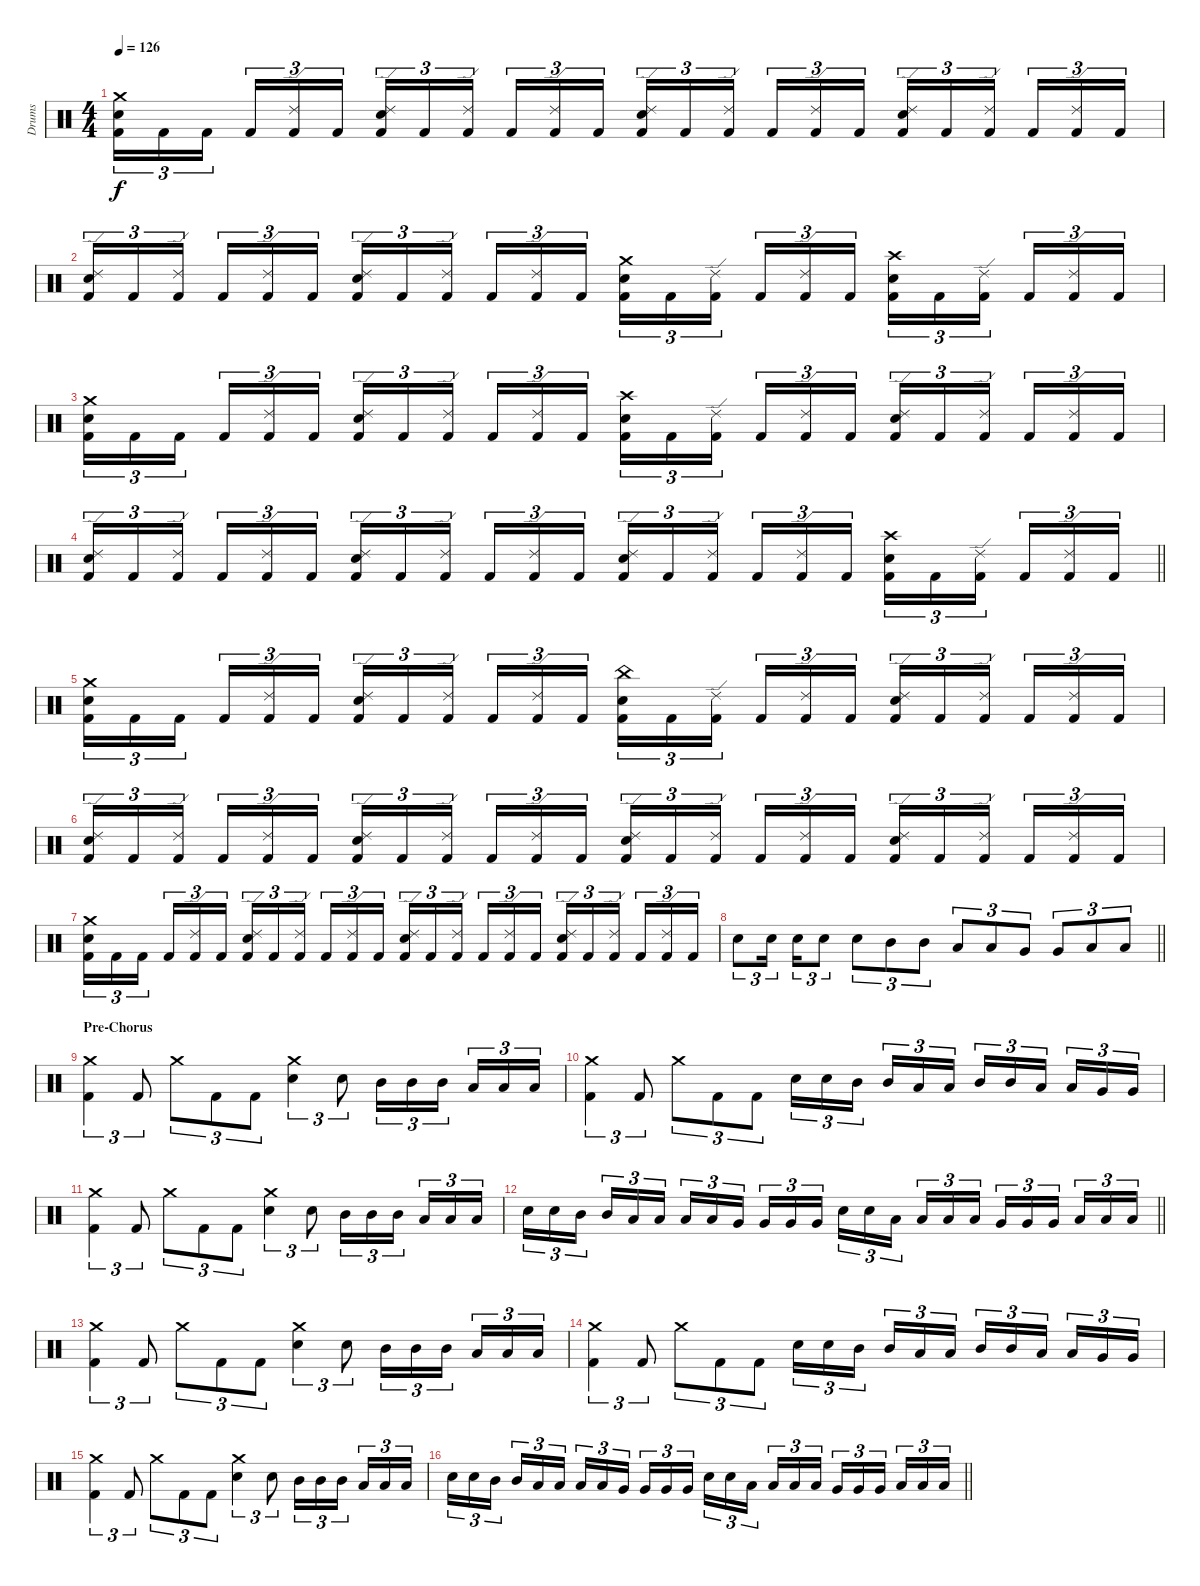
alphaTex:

\track ("Drums" "Drums") {instrument percussion}
\staff {score}
\articulation defaults
\ts (4 4)
\section ("" "")
\tempo 126
\clef neutral
\ks c
("Kick (hit) 2" "Snare (hit) 2" "Crash medium (hit)").16{tu (3 2) dy f} "Kick (hit) 2".16{tu (3 2)} "Kick (hit) 2".16{tu (3 2) beam splitsecondary} "Kick (hit) 2".16{tu (3 2)} ("Kick (hit) 2" "Ride (edge) 2").16{tu (3 2)} "Kick (hit) 2".16{tu (3 2)} ("Kick (hit) 2" "Snare (hit) 2" "Ride (edge) 2").16{tu (3 2)} "Kick (hit) 2".16{tu (3 2)} ("Kick (hit) 2" "Ride (edge) 2").16{tu (3 2) beam splitsecondary} "Kick (hit) 2".16{tu (3 2)} ("Kick (hit) 2" "Ride (edge) 2").16{tu (3 2)} "Kick (hit) 2".16{tu (3 2)} ("Kick (hit) 2" "Snare (hit) 2" "Ride (edge) 2").16{tu (3 2)} "Kick (hit) 2".16{tu (3 2)} ("Kick (hit) 2" "Ride (edge) 2").16{tu (3 2) beam splitsecondary} "Kick (hit) 2".16{tu (3 2)} ("Kick (hit) 2" "Ride (edge) 2").16{tu (3 2)} "Kick (hit) 2".16{tu (3 2)} ("Kick (hit) 2" "Snare (hit) 2" "Ride (edge) 2").16{tu (3 2)} "Kick (hit) 2".16{tu (3 2)} ("Kick (hit) 2" "Ride (edge) 2").16{tu (3 2) beam splitsecondary} "Kick (hit) 2".16{tu (3 2)} ("Kick (hit) 2" "Ride (edge) 2").16{tu (3 2)} "Kick (hit) 2".16{tu (3 2)} |
("Kick (hit) 2" "Snare (hit) 2" "Ride (edge) 2").16{tu (3 2)} "Kick (hit) 2".16{tu (3 2)} ("Kick (hit) 2" "Ride (edge) 2").16{tu (3 2) beam splitsecondary} "Kick (hit) 2".16{tu (3 2)} ("Kick (hit) 2" "Ride (edge) 2").16{tu (3 2)} "Kick (hit) 2".16{tu (3 2)} ("Kick (hit) 2" "Snare (hit) 2" "Ride (edge) 2").16{tu (3 2)} "Kick (hit) 2".16{tu (3 2)} ("Kick (hit) 2" "Ride (edge) 2").16{tu (3 2) beam splitsecondary} "Kick (hit) 2".16{tu (3 2)} ("Kick (hit) 2" "Ride (edge) 2").16{tu (3 2)} "Kick (hit) 2".16{tu (3 2)} ("Kick (hit) 2" "Snare (hit) 2" "Crash medium (hit)").16{tu (3 2)} "Kick (hit) 2".16{tu (3 2)} ("Kick (hit) 2" "Ride (edge) 2").16{tu (3 2) beam splitsecondary} "Kick (hit) 2".16{tu (3 2)} ("Kick (hit) 2" "Ride (edge) 2").16{tu (3 2)} "Kick (hit) 2".16{tu (3 2)} ("Kick (hit) 2" "Snare (hit) 2" "Crash high (hit)").16{tu (3 2)} "Kick (hit) 2".16{tu (3 2)} ("Kick (hit) 2" "Ride (edge) 2").16{tu (3 2) beam splitsecondary} "Kick (hit) 2".16{tu (3 2)} ("Kick (hit) 2" "Ride (edge) 2").16{tu (3 2)} "Kick (hit) 2".16{tu (3 2)} |
("Kick (hit) 2" "Snare (hit) 2" "Crash medium (hit)").16{tu (3 2)} "Kick (hit) 2".16{tu (3 2)} "Kick (hit) 2".16{tu (3 2) beam splitsecondary} "Kick (hit) 2".16{tu (3 2)} ("Kick (hit) 2" "Ride (edge) 2").16{tu (3 2)} "Kick (hit) 2".16{tu (3 2)} ("Kick (hit) 2" "Snare (hit) 2" "Ride (edge) 2").16{tu (3 2)} "Kick (hit) 2".16{tu (3 2)} ("Kick (hit) 2" "Ride (edge) 2").16{tu (3 2) beam splitsecondary} "Kick (hit) 2".16{tu (3 2)} ("Kick (hit) 2" "Ride (edge) 2").16{tu (3 2)} "Kick (hit) 2".16{tu (3 2)} ("Kick (hit) 2" "Snare (hit) 2" "Crash high (hit)").16{tu (3 2)} "Kick (hit) 2".16{tu (3 2)} ("Kick (hit) 2" "Ride (edge) 2").16{tu (3 2) beam splitsecondary} "Kick (hit) 2".16{tu (3 2)} ("Kick (hit) 2" "Ride (edge) 2").16{tu (3 2)} "Kick (hit) 2".16{tu (3 2)} ("Kick (hit) 2" "Snare (hit) 2" "Ride (edge) 2").16{tu (3 2)} "Kick (hit) 2".16{tu (3 2)} ("Kick (hit) 2" "Ride (edge) 2").16{tu (3 2) beam splitsecondary} "Kick (hit) 2".16{tu (3 2)} ("Kick (hit) 2" "Ride (edge) 2").16{tu (3 2)} "Kick (hit) 2".16{tu (3 2)} |
\barLineRight lightlight
("Kick (hit) 2" "Snare (hit) 2" "Ride (edge) 2").16{tu (3 2)} "Kick (hit) 2".16{tu (3 2)} ("Kick (hit) 2" "Ride (edge) 2").16{tu (3 2) beam splitsecondary} "Kick (hit) 2".16{tu (3 2)} ("Kick (hit) 2" "Ride (edge) 2").16{tu (3 2)} "Kick (hit) 2".16{tu (3 2)} ("Kick (hit) 2" "Snare (hit) 2" "Ride (edge) 2").16{tu (3 2)} "Kick (hit) 2".16{tu (3 2)} ("Kick (hit) 2" "Ride (edge) 2").16{tu (3 2) beam splitsecondary} "Kick (hit) 2".16{tu (3 2)} ("Kick (hit) 2" "Ride (edge) 2").16{tu (3 2)} "Kick (hit) 2".16{tu (3 2)} ("Kick (hit) 2" "Snare (hit) 2" "Ride (edge) 2").16{tu (3 2)} "Kick (hit) 2".16{tu (3 2)} ("Kick (hit) 2" "Ride (edge) 2").16{tu (3 2) beam splitsecondary} "Kick (hit) 2".16{tu (3 2)} ("Kick (hit) 2" "Ride (edge) 2").16{tu (3 2)} "Kick (hit) 2".16{tu (3 2)} ("Kick (hit) 2" "Snare (hit) 2" "Crash high (hit)").16{tu (3 2)} "Kick (hit) 2".16{tu (3 2)} ("Kick (hit) 2" "Ride (edge) 2").16{tu (3 2) beam splitsecondary} "Kick (hit) 2".16{tu (3 2)} ("Kick (hit) 2" "Ride (edge) 2").16{tu (3 2)} "Kick (hit) 2".16{tu (3 2)} |
\section ("" "")
("Kick (hit) 2" "Snare (hit) 2" "Crash medium (hit)").16{tu (3 2)} "Kick (hit) 2".16{tu (3 2)} "Kick (hit) 2".16{tu (3 2) beam splitsecondary} "Kick (hit) 2".16{tu (3 2)} ("Kick (hit) 2" "Ride (edge) 2").16{tu (3 2)} "Kick (hit) 2".16{tu (3 2)} ("Kick (hit) 2" "Snare (hit) 2" "Ride (edge) 2").16{tu (3 2)} "Kick (hit) 2".16{tu (3 2)} ("Kick (hit) 2" "Ride (edge) 2").16{tu (3 2) beam splitsecondary} "Kick (hit) 2".16{tu (3 2)} ("Kick (hit) 2" "Ride (edge) 2").16{tu (3 2)} "Kick (hit) 2".16{tu (3 2)} ("Kick (hit) 2" "Snare (hit) 2" "China (hit)").16{tu (3 2)} "Kick (hit) 2".16{tu (3 2)} ("Kick (hit) 2" "Ride (edge) 2").16{tu (3 2) beam splitsecondary} "Kick (hit) 2".16{tu (3 2)} ("Kick (hit) 2" "Ride (edge) 2").16{tu (3 2)} "Kick (hit) 2".16{tu (3 2)} ("Kick (hit) 2" "Snare (hit) 2" "Ride (edge) 2").16{tu (3 2)} "Kick (hit) 2".16{tu (3 2)} ("Kick (hit) 2" "Ride (edge) 2").16{tu (3 2) beam splitsecondary} "Kick (hit) 2".16{tu (3 2)} ("Kick (hit) 2" "Ride (edge) 2").16{tu (3 2)} "Kick (hit) 2".16{tu (3 2)} |
("Kick (hit) 2" "Snare (hit) 2" "Ride (edge) 2").16{tu (3 2)} "Kick (hit) 2".16{tu (3 2)} ("Kick (hit) 2" "Ride (edge) 2").16{tu (3 2) beam splitsecondary} "Kick (hit) 2".16{tu (3 2)} ("Kick (hit) 2" "Ride (edge) 2").16{tu (3 2)} "Kick (hit) 2".16{tu (3 2)} ("Kick (hit) 2" "Snare (hit) 2" "Ride (edge) 2").16{tu (3 2)} "Kick (hit) 2".16{tu (3 2)} ("Kick (hit) 2" "Ride (edge) 2").16{tu (3 2) beam splitsecondary} "Kick (hit) 2".16{tu (3 2)} ("Kick (hit) 2" "Ride (edge) 2").16{tu (3 2)} "Kick (hit) 2".16{tu (3 2)} ("Kick (hit) 2" "Snare (hit) 2" "Ride (edge) 2").16{tu (3 2)} "Kick (hit) 2".16{tu (3 2)} ("Kick (hit) 2" "Ride (edge) 2").16{tu (3 2) beam splitsecondary} "Kick (hit) 2".16{tu (3 2)} ("Kick (hit) 2" "Ride (edge) 2").16{tu (3 2)} "Kick (hit) 2".16{tu (3 2)} ("Kick (hit) 2" "Snare (hit) 2" "Ride (edge) 2").16{tu (3 2)} "Kick (hit) 2".16{tu (3 2)} ("Kick (hit) 2" "Ride (edge) 2").16{tu (3 2) beam splitsecondary} "Kick (hit) 2".16{tu (3 2)} ("Kick (hit) 2" "Ride (edge) 2").16{tu (3 2)} "Kick (hit) 2".16{tu (3 2)} |
("Kick (hit) 2" "Snare (hit) 2" "Crash medium (hit)").16{tu (3 2)} "Kick (hit) 2".16{tu (3 2)} "Kick (hit) 2".16{tu (3 2) beam splitsecondary} "Kick (hit) 2".16{tu (3 2)} ("Kick (hit) 2" "Ride (edge) 2").16{tu (3 2)} "Kick (hit) 2".16{tu (3 2)} ("Kick (hit) 2" "Snare (hit) 2" "Ride (edge) 2").16{tu (3 2)} "Kick (hit) 2".16{tu (3 2)} ("Kick (hit) 2" "Ride (edge) 2").16{tu (3 2) beam splitsecondary} "Kick (hit) 2".16{tu (3 2)} ("Kick (hit) 2" "Ride (edge) 2").16{tu (3 2)} "Kick (hit) 2".16{tu (3 2)} ("Kick (hit) 2" "Snare (hit) 2" "Ride (edge) 2").16{tu (3 2)} "Kick (hit) 2".16{tu (3 2)} ("Kick (hit) 2" "Ride (edge) 2").16{tu (3 2) beam splitsecondary} "Kick (hit) 2".16{tu (3 2)} ("Kick (hit) 2" "Ride (edge) 2").16{tu (3 2)} "Kick (hit) 2".16{tu (3 2)} ("Kick (hit) 2" "Snare (hit) 2" "Ride (edge) 2").16{tu (3 2)} "Kick (hit) 2".16{tu (3 2)} ("Kick (hit) 2" "Ride (edge) 2").16{tu (3 2) beam splitsecondary} "Kick (hit) 2".16{tu (3 2)} ("Kick (hit) 2" "Ride (edge) 2").16{tu (3 2)} "Kick (hit) 2".16{tu (3 2)} |
\barLineRight lightlight "Snare (hit) 2".8{tu (3 2)} "Snare (hit) 2".16{tu (3 2) beam splitsecondary} "Snare (hit) 2".16{tu (3 2)} "Snare (hit) 2".8{tu (3 2)} "Snare (hit) 2".8{tu (3 2)} "Mid Tom (hit)".8{tu (3 2)} "Mid Tom (hit)".8{tu (3 2)} "Low Tom (hit)".8{tu (3 2)} "Low Tom (hit)".8{tu (3 2)} "Very Low Tom (hit)".8{tu (3 2)} "Very Low Tom (hit)".8{tu (3 2)} "Low Floor Tom (hit)".8{tu (3 2)} "Low Floor Tom (hit)".8{tu (3 2)}
|
\section ("" "Pre-Chorus")
("Kick (hit) 2" "Crash medium (hit)").4{tu (3 2)} "Kick (hit) 2".8{tu (3 2)} "Crash medium (hit)".8{tu (3 2)} "Kick (hit) 2".8{tu (3 2)} "Kick (hit) 2".8{tu (3 2)} ("Snare (hit) 2" "Crash medium (hit)").4{tu (3 2)} "Snare (hit) 2".8{tu (3 2)} "Mid Tom (hit)".16{tu (3 2)} "Mid Tom (hit)".16{tu (3 2)} "Mid Tom (hit)".16{tu (3 2) beam splitsecondary} "Low Tom (hit)".16{tu (3 2)} "Low Tom (hit)".16{tu (3 2)} "Low Tom (hit)".16{tu (3 2)} |
("Kick (hit) 2" "Crash medium (hit)").4{tu (3 2)} "Kick (hit) 2".8{tu (3 2)} "Crash medium (hit)".8{tu (3 2)} "Kick (hit) 2".8{tu (3 2)} "Kick (hit) 2".8{tu (3 2)} "Snare (hit) 2".16{tu (3 2)} "Snare (hit) 2".16{tu (3 2)} "Mid Tom (hit)".16{tu (3 2) beam splitsecondary} "Mid Tom (hit)".16{tu (3 2)} "Low Tom (hit)".16{tu (3 2)} "Low Tom (hit)".16{tu (3 2)} "Mid Tom (hit)".16{tu (3 2)} "Mid Tom (hit)".16{tu (3 2)} "Low Tom (hit)".16{tu (3 2) beam splitsecondary} "Low Tom (hit)".16{tu (3 2)} "Very Low Tom (hit)".16{tu (3 2)} "Very Low Tom (hit)".16{tu (3 2)} |
("Kick (hit) 2" "Crash medium (hit)").4{tu (3 2)} "Kick (hit) 2".8{tu (3 2)} "Crash medium (hit)".8{tu (3 2)} "Kick (hit) 2".8{tu (3 2)} "Kick (hit) 2".8{tu (3 2)} ("Snare (hit) 2" "Crash medium (hit)").4{tu (3 2)} "Snare (hit) 2".8{tu (3 2)} "Mid Tom (hit)".16{tu (3 2)} "Mid Tom (hit)".16{tu (3 2)} "Mid Tom (hit)".16{tu (3 2) beam splitsecondary} "Low Tom (hit)".16{tu (3 2)} "Low Tom (hit)".16{tu (3 2)} "Low Tom (hit)".16{tu (3 2)} |
\barLineRight lightlight "Snare (hit) 2".16{tu (3 2)} "Snare (hit) 2".16{tu (3 2)} "Mid Tom (hit)".16{tu (3 2) beam splitsecondary} "Mid Tom (hit)".16{tu (3 2)} "Low Tom (hit)".16{tu (3 2)} "Low Tom (hit)".16{tu (3 2)} "Low Tom (hit)".16{tu (3 2)} "Low Tom (hit)".16{tu (3 2)} "Very Low Tom (hit)".16{tu (3 2) beam splitsecondary} "Very Low Tom (hit)".16{tu (3 2)} "Very Low Tom (hit)".16{tu (3 2)} "Very Low Tom (hit)".16{tu (3 2)} "Snare (hit) 2".16{tu (3 2)} "Snare (hit) 2".16{tu (3 2)} "Low Tom (hit)".16{tu (3 2) beam splitsecondary} "Low Tom (hit)".16{tu (3 2)} "Low Tom (hit)".16{tu (3 2)} "Low Tom (hit)".16{tu (3 2)} "Very Low Tom (hit)".16{tu (3 2)} "Very Low Tom (hit)".16{tu (3 2)} "Very Low Tom (hit)".16{tu (3 2) beam splitsecondary} "Low Floor Tom (hit)".16{tu (3 2)} "Low Floor Tom (hit)".16{tu (3 2)} "Low Floor Tom (hit)".16{tu (3 2)}
|
\section ("" "")
("Kick (hit) 2" "Crash medium (hit)").4{tu (3 2)} "Kick (hit) 2".8{tu (3 2)} "Crash medium (hit)".8{tu (3 2)} "Kick (hit) 2".8{tu (3 2)} "Kick (hit) 2".8{tu (3 2)} ("Snare (hit) 2" "Crash medium (hit)").4{tu (3 2)} "Snare (hit) 2".8{tu (3 2)} "Mid Tom (hit)".16{tu (3 2)} "Mid Tom (hit)".16{tu (3 2)} "Mid Tom (hit)".16{tu (3 2) beam splitsecondary} "Low Tom (hit)".16{tu (3 2)} "Low Tom (hit)".16{tu (3 2)} "Low Tom (hit)".16{tu (3 2)} |
("Kick (hit) 2" "Crash medium (hit)").4{tu (3 2)} "Kick (hit) 2".8{tu (3 2)} "Crash medium (hit)".8{tu (3 2)} "Kick (hit) 2".8{tu (3 2)} "Kick (hit) 2".8{tu (3 2)} "Snare (hit) 2".16{tu (3 2)} "Snare (hit) 2".16{tu (3 2)} "Mid Tom (hit)".16{tu (3 2) beam splitsecondary} "Mid Tom (hit)".16{tu (3 2)} "Low Tom (hit)".16{tu (3 2)} "Low Tom (hit)".16{tu (3 2)} "Mid Tom (hit)".16{tu (3 2)} "Mid Tom (hit)".16{tu (3 2)} "Low Tom (hit)".16{tu (3 2) beam splitsecondary} "Low Tom (hit)".16{tu (3 2)} "Very Low Tom (hit)".16{tu (3 2)} "Very Low Tom (hit)".16{tu (3 2)} |
("Kick (hit) 2" "Crash medium (hit)").4{tu (3 2)} "Kick (hit) 2".8{tu (3 2)} "Crash medium (hit)".8{tu (3 2)} "Kick (hit) 2".8{tu (3 2)} "Kick (hit) 2".8{tu (3 2)} ("Snare (hit) 2" "Crash medium (hit)").4{tu (3 2)} "Snare (hit) 2".8{tu (3 2)} "Mid Tom (hit)".16{tu (3 2)} "Mid Tom (hit)".16{tu (3 2)} "Mid Tom (hit)".16{tu (3 2) beam splitsecondary} "Low Tom (hit)".16{tu (3 2)} "Low Tom (hit)".16{tu (3 2)} "Low Tom (hit)".16{tu (3 2)} |
\barLineRight lightlight "Snare (hit) 2".16{tu (3 2)} "Snare (hit) 2".16{tu (3 2)} "Mid Tom (hit)".16{tu (3 2) beam splitsecondary} "Mid Tom (hit)".16{tu (3 2)} "Low Tom (hit)".16{tu (3 2)} "Low Tom (hit)".16{tu (3 2)} "Low Tom (hit)".16{tu (3 2)} "Low Tom (hit)".16{tu (3 2)} "Very Low Tom (hit)".16{tu (3 2) beam splitsecondary} "Very Low Tom (hit)".16{tu (3 2)} "Very Low Tom (hit)".16{tu (3 2)} "Very Low Tom (hit)".16{tu (3 2)} "Snare (hit) 2".16{tu (3 2)} "Snare (hit) 2".16{tu (3 2)} "Low Tom (hit)".16{tu (3 2) beam splitsecondary} "Low Tom (hit)".16{tu (3 2)} "Low Tom (hit)".16{tu (3 2)} "Low Tom (hit)".16{tu (3 2)} "Very Low Tom (hit)".16{tu (3 2)} "Very Low Tom (hit)".16{tu (3 2)} "Very Low Tom (hit)".16{tu (3 2) beam splitsecondary} "Low Floor Tom (hit)".16{tu (3 2)} "Low Floor Tom (hit)".16{tu (3 2)} "Low Floor Tom (hit)".16{tu (3 2)}
